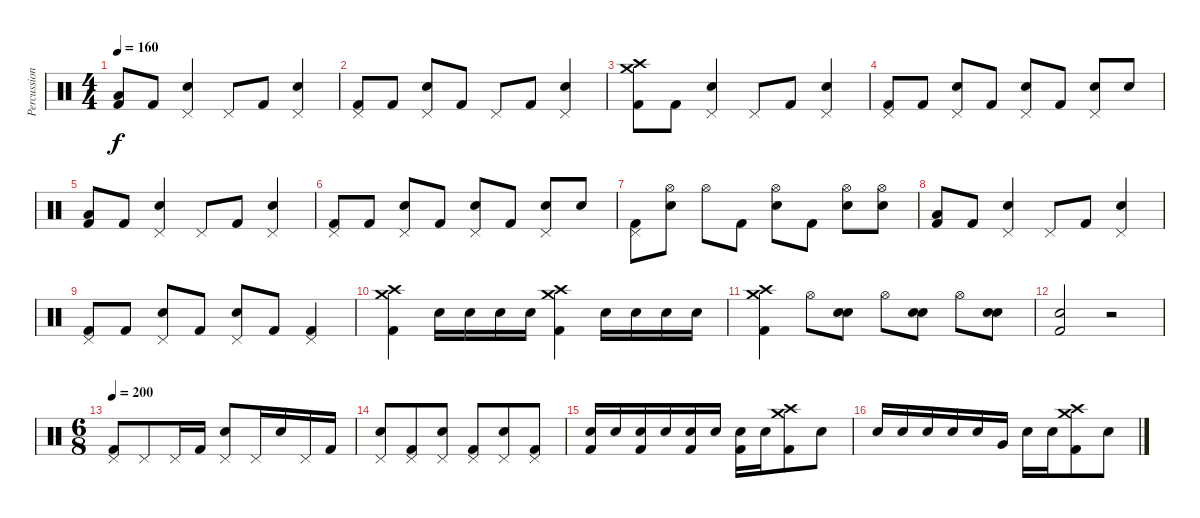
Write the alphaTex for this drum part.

\track ("Percussion" "Percussion") {instrument percussion}
\staff {score}
\articulation defaults
\ts (4 4)
\tempo 160
\clef neutral
\ks c
("Kick (hit) 2" "Low Floor Tom (hit)").8{dy f} "Kick (hit) 2".8 ("Snare (hit) 2" "Pedal Hi-Hat (hit)").4 "Pedal Hi-Hat (hit)".8 "Kick (hit) 2".8 ("Snare (hit) 2" "Pedal Hi-Hat (hit)").4 |
("Kick (hit) 2" "Pedal Hi-Hat (hit)").8 "Kick (hit) 2".8 ("Snare (hit) 2" "Pedal Hi-Hat (hit)").8 "Kick (hit) 2".8 "Pedal Hi-Hat (hit)".8 "Kick (hit) 2".8 ("Snare (hit) 2" "Pedal Hi-Hat (hit)").4 |
("Kick (hit) 2" "Crash high (hit)" "Crash medium (hit)").8 "Kick (hit) 2".8 ("Snare (hit) 2" "Pedal Hi-Hat (hit)").4 "Pedal Hi-Hat (hit)".8 "Kick (hit) 2".8 ("Snare (hit) 2" "Pedal Hi-Hat (hit)").4 |
("Kick (hit) 2" "Pedal Hi-Hat (hit)").8 "Kick (hit) 2".8 ("Snare (hit) 2" "Pedal Hi-Hat (hit)").8 "Kick (hit) 2".8 ("Snare (hit) 2" "Pedal Hi-Hat (hit)").8 "Kick (hit) 2".8 ("Snare (hit) 2" "Pedal Hi-Hat (hit)").8 "Snare (hit) 2".8 |
("Kick (hit) 2" "Low Floor Tom (hit)").8 "Kick (hit) 2".8 ("Snare (hit) 2" "Pedal Hi-Hat (hit)").4 "Pedal Hi-Hat (hit)".8 "Kick (hit) 2".8 ("Snare (hit) 2" "Pedal Hi-Hat (hit)").4 |
("Kick (hit) 2" "Pedal Hi-Hat (hit)").8 "Kick (hit) 2".8 ("Snare (hit) 2" "Pedal Hi-Hat (hit)").8 "Kick (hit) 2".8 ("Snare (hit) 2" "Pedal Hi-Hat (hit)").8 "Kick (hit) 2".8 ("Snare (hit) 2" "Pedal Hi-Hat (hit)").8 "Snare (hit) 2".8 |
("Kick (hit) 2" "Pedal Hi-Hat (hit)").8 ("Snare (hit) 2" "Hi-Hat (open)").8 "Hi-Hat (open)".8 "Kick (hit) 2".8 ("Snare (hit) 2" "Hi-Hat (open)").8 "Kick (hit) 2".8 ("Snare (hit) 2" "Hi-Hat (open)").8 ("Snare (hit) 2" "Hi-Hat (open)").8 |
("Kick (hit) 2" "Low Floor Tom (hit)").8 "Kick (hit) 2".8 ("Snare (hit) 2" "Pedal Hi-Hat (hit)").4 "Pedal Hi-Hat (hit)".8 "Kick (hit) 2".8 ("Snare (hit) 2" "Pedal Hi-Hat (hit)").4 |
("Kick (hit) 2" "Pedal Hi-Hat (hit)").8 "Kick (hit) 2".8 ("Snare (hit) 2" "Pedal Hi-Hat (hit)").8 "Kick (hit) 2".8 ("Snare (hit) 2" "Pedal Hi-Hat (hit)").8 "Kick (hit) 2".8 ("Kick (hit) 2" "Pedal Hi-Hat (hit)").4 |
("Kick (hit) 2" "Crash high (hit)" "Crash medium (hit)").4 "Snare (hit) 2".16 "Snare (hit) 2".16 "Snare (hit) 2".16 "Snare (hit) 2".16 ("Kick (hit) 2" "Crash high (hit)" "Crash medium (hit)").4 "Snare (hit) 2".16 "Snare (hit) 2".16 "Snare (hit) 2".16 "Snare (hit) 2".16 |
("Kick (hit) 2" "Crash high (hit)" "Crash medium (hit)").4 "Hi-Hat (open)".8 ("Snare (hit) 2" "Electric Snare (hit)").8 "Hi-Hat (open)".8 ("Snare (hit) 2" "Electric Snare (hit)").8 "Hi-Hat (open)".8 ("Snare (hit) 2" "Electric Snare (hit)").8 |
("Kick (hit) 2" "Snare (hit) 2").2 r.2 |
\ts (6 8)
\tempo 200
("Kick (hit) 2" "Pedal Hi-Hat (hit)").8 "Pedal Hi-Hat (hit)".8 "Pedal Hi-Hat (hit)".16 "Kick (hit) 2".16 ("Snare (hit) 2" "Pedal Hi-Hat (hit)").8 "Pedal Hi-Hat (hit)".16 "Snare (hit) 2".16 "Pedal Hi-Hat (hit)".16 "Kick (hit) 2".16 |
("Snare (hit) 2" "Pedal Hi-Hat (hit)").8 ("Kick (hit) 2" "Pedal Hi-Hat (hit)").8 ("Snare (hit) 2" "Pedal Hi-Hat (hit)").8 ("Kick (hit) 2" "Pedal Hi-Hat (hit)").8 ("Snare (hit) 2" "Pedal Hi-Hat (hit)").8 ("Kick (hit) 2" "Pedal Hi-Hat (hit)").8 |
("Snare (hit) 2" "Kick (hit) 2").16 "Snare (hit) 2".16 ("Snare (hit) 2" "Kick (hit) 2").16 "Snare (hit) 2".16 ("Snare (hit) 2" "Kick (hit) 2").16 "Snare (hit) 2".16 ("Snare (hit) 2" "Kick (hit) 2").16 "Snare (hit) 2".16 ("Kick (hit) 2" "Crash high (hit)" "Crash medium (hit)").8 "Snare (hit) 2".8 |
"Snare (hit) 2".16 "Snare (hit) 2".16 "Snare (hit) 2".16 "Snare (hit) 2".16 "Snare (hit) 2".16 "Very Low Tom (hit)".16 "Snare (hit) 2".16 "Snare (hit) 2".16 ("Kick (hit) 2" "Crash high (hit)" "Crash medium (hit)").8 "Snare (hit) 2".8
